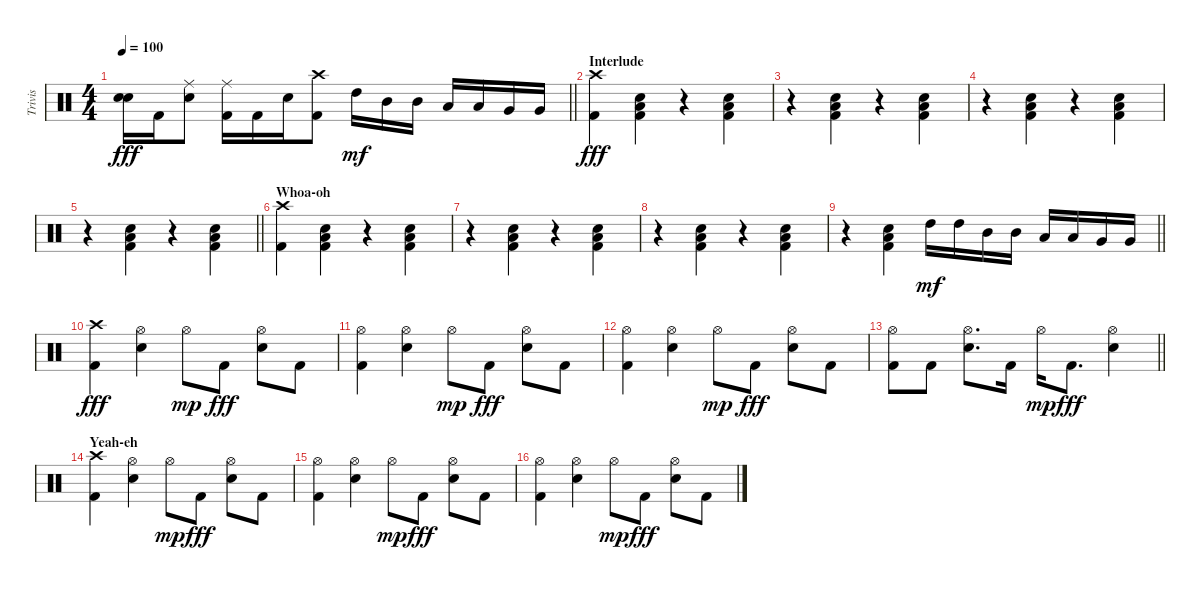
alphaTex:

\track ("Trivis" "Trivis") {instrument percussion}
\staff {score}
\articulation defaults
\ts (4 4)
\tempo 100
\clef neutral
\barLineRight lightlight
\ks c
("Snare (hit)"{t} "Snare (hit)"{t}).16{dy fff} "Kick (hit) 2".16 ("Ride (middle)" "Snare (hit) 2").8 ("Ride (middle)" "Kick (hit) 2").16 "Kick (hit) 2".16 "Snare (hit) 2".16 ("Crash high (hit)" "Kick (hit) 2").8 "High Tom (hit)".16{dy mf} "Mid Tom (hit)".16 "Mid Tom (hit)".16 "Low Tom (hit)".16 "Low Tom (hit)".16 "Very Low Tom (hit)".16 "Very Low Tom (hit)".16 |
\section ("" "Interlude")
("Crash high (hit)" "Kick (hit) 2").4{dy fff} ("Snare (hit) 2" "Low Tom (hit)" "Kick (hit) 2").4 r.4 ("Snare (hit) 2" "Low Tom (hit)" "Kick (hit) 2").4 |
r.4 ("Snare (hit) 2" "Low Tom (hit)" "Kick (hit) 2").4 r.4 ("Snare (hit) 2" "Low Tom (hit)" "Kick (hit) 2").4 |
r.4 ("Snare (hit) 2" "Low Tom (hit)" "Kick (hit) 2").4 r.4 ("Snare (hit) 2" "Low Tom (hit)" "Kick (hit) 2").4 |
\barLineRight lightlight
r.4 ("Snare (hit) 2" "Low Tom (hit)" "Kick (hit) 2").4 r.4 ("Snare (hit) 2" "Low Tom (hit)" "Kick (hit) 2").4 |
\section ("" "Whoa-oh")
("Crash high (hit)" "Kick (hit) 2").4 ("Snare (hit) 2" "Low Tom (hit)" "Kick (hit) 2").4 r.4 ("Snare (hit) 2" "Low Tom (hit)" "Kick (hit) 2").4 |
r.4 ("Snare (hit) 2" "Low Tom (hit)" "Kick (hit) 2").4 r.4 ("Snare (hit) 2" "Low Tom (hit)" "Kick (hit) 2").4 |
r.4 ("Snare (hit) 2" "Low Tom (hit)" "Kick (hit) 2").4 r.4 ("Snare (hit) 2" "Low Tom (hit)" "Kick (hit) 2").4 |
\barLineRight lightlight
r.4 ("Snare (hit) 2" "Low Tom (hit)" "Kick (hit) 2").4 "High Tom (hit)".16{dy mf} "High Tom (hit)".16 "Mid Tom (hit)".16 "Mid Tom (hit)".16 "Low Tom (hit)".16 "Low Tom (hit)".16 "Very Low Tom (hit)".16 "Very Low Tom (hit)".16 |
("Crash high (hit)" "Kick (hit) 2").4{dy fff} ("Hi-Hat (open)" "Snare (hit) 2").4 "Hi-Hat (open)".8{dy mp} "Kick (hit) 2".8{dy fff} ("Hi-Hat (open)" "Snare (hit) 2").8 "Kick (hit) 2".8 |
("Hi-Hat (open)" "Kick (hit) 2").4 ("Hi-Hat (open)" "Snare (hit) 2").4 "Hi-Hat (open)".8{dy mp} "Kick (hit) 2".8{dy fff} ("Hi-Hat (open)" "Snare (hit) 2").8 "Kick (hit) 2".8 |
("Hi-Hat (open)" "Kick (hit) 2").4 ("Hi-Hat (open)" "Snare (hit) 2").4 "Hi-Hat (open)".8{dy mp} "Kick (hit) 2".8{dy fff} ("Hi-Hat (open)" "Snare (hit) 2").8 "Kick (hit) 2".8 |
\barLineRight lightlight
("Hi-Hat (open)" "Kick (hit) 2").8 "Kick (hit) 2".8 ("Hi-Hat (open)" "Snare (hit) 2").8{d} "Kick (hit) 2".16 "Hi-Hat (open)".16{dy mp} "Kick (hit) 2".8{d dy fff} ("Hi-Hat (open)" "Snare (hit) 2").4 |
\section ("" "Yeah-eh")
("Crash high (hit)" "Kick (hit) 2").4 ("Hi-Hat (open)" "Snare (hit) 2").4 "Hi-Hat (open)".8{dy mp} "Kick (hit) 2".8{dy fff} ("Hi-Hat (open)" "Snare (hit) 2").8 "Kick (hit) 2".8 |
("Hi-Hat (open)" "Kick (hit) 2").4 ("Hi-Hat (open)" "Snare (hit) 2").4 "Hi-Hat (open)".8{dy mp} "Kick (hit) 2".8{dy fff} ("Hi-Hat (open)" "Snare (hit) 2").8 "Kick (hit) 2".8 |
("Hi-Hat (open)" "Kick (hit) 2").4 ("Hi-Hat (open)" "Snare (hit) 2").4 "Hi-Hat (open)".8{dy mp} "Kick (hit) 2".8{dy fff} ("Hi-Hat (open)" "Snare (hit) 2").8 "Kick (hit) 2".8
